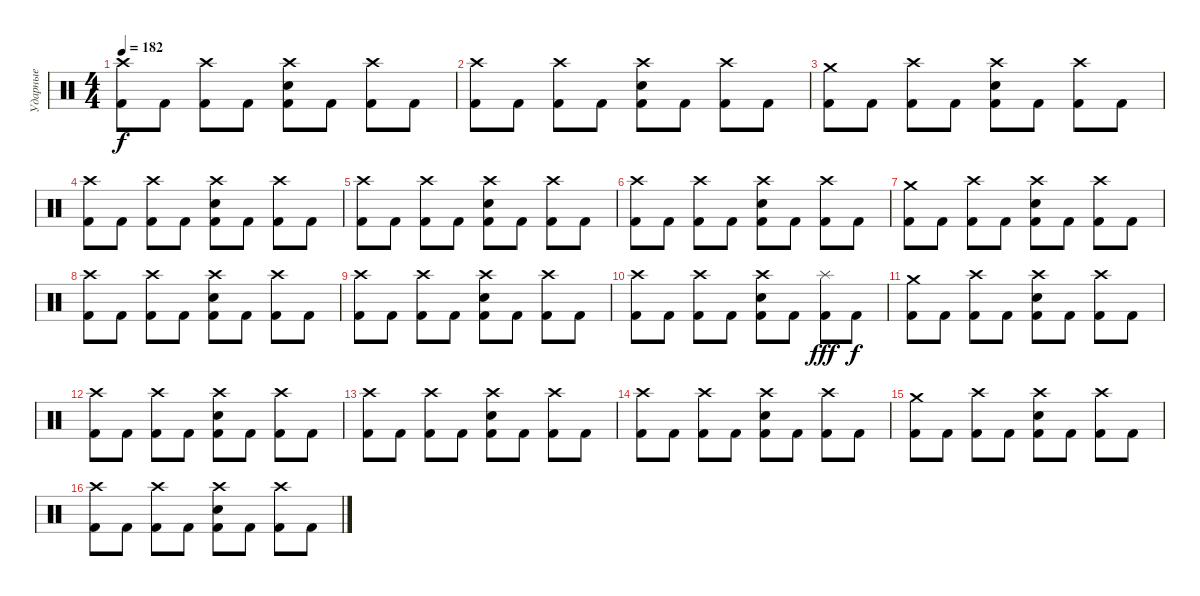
\track ("Ударные" "Ударные") {instrument percussion}
\staff {score}
\articulation defaults
\ts (4 4)
\tempo 182
\clef neutral
\ks c
("Crash high (hit)" "Kick (hit) 2").8{dy f} "Kick (hit) 2".8 ("Crash high (hit)" "Kick (hit) 2").8 "Kick (hit) 2".8 ("Crash high (hit)" "Electric Snare (hit)" "Kick (hit) 2").8 "Kick (hit) 2".8 ("Crash high (hit)" "Kick (hit) 2").8 "Kick (hit) 2".8 |
("Crash high (hit)" "Kick (hit) 2").8 "Kick (hit) 2".8 ("Crash high (hit)" "Kick (hit) 2").8 "Kick (hit) 2".8 ("Crash high (hit)" "Electric Snare (hit)" "Kick (hit) 2").8 "Kick (hit) 2".8 ("Crash high (hit)" "Kick (hit) 2").8 "Kick (hit) 2".8 |
("Crash medium (hit)" "Kick (hit) 2").8 "Kick (hit) 2".8 ("Crash high (hit)" "Kick (hit) 2").8 "Kick (hit) 2".8 ("Crash high (hit)" "Electric Snare (hit)" "Kick (hit) 2").8 "Kick (hit) 2".8 ("Crash high (hit)" "Kick (hit) 2").8 "Kick (hit) 2".8 |
("Crash high (hit)" "Kick (hit) 2").8 "Kick (hit) 2".8 ("Crash high (hit)" "Kick (hit) 2").8 "Kick (hit) 2".8 ("Crash high (hit)" "Electric Snare (hit)" "Kick (hit) 2").8 "Kick (hit) 2".8 ("Crash high (hit)" "Kick (hit) 2").8 "Kick (hit) 2".8 |
("Crash high (hit)" "Kick (hit) 2").8 "Kick (hit) 2".8 ("Crash high (hit)" "Kick (hit) 2").8 "Kick (hit) 2".8 ("Crash high (hit)" "Electric Snare (hit)" "Kick (hit) 2").8 "Kick (hit) 2".8 ("Crash high (hit)" "Kick (hit) 2").8 "Kick (hit) 2".8 |
("Crash high (hit)" "Kick (hit) 2").8 "Kick (hit) 2".8 ("Crash high (hit)" "Kick (hit) 2").8 "Kick (hit) 2".8 ("Crash high (hit)" "Electric Snare (hit)" "Kick (hit) 2").8 "Kick (hit) 2".8 ("Crash high (hit)" "Kick (hit) 2").8 "Kick (hit) 2".8 |
("Crash medium (hit)" "Kick (hit) 2").8 "Kick (hit) 2".8 ("Crash high (hit)" "Kick (hit) 2").8 "Kick (hit) 2".8 ("Crash high (hit)" "Electric Snare (hit)" "Kick (hit) 2").8 "Kick (hit) 2".8 ("Crash high (hit)" "Kick (hit) 2").8 "Kick (hit) 2".8 |
("Crash high (hit)" "Kick (hit) 2").8 "Kick (hit) 2".8 ("Crash high (hit)" "Kick (hit) 2").8 "Kick (hit) 2".8 ("Crash high (hit)" "Electric Snare (hit)" "Kick (hit) 2").8 "Kick (hit) 2".8 ("Crash high (hit)" "Kick (hit) 2").8 "Kick (hit) 2".8 |
("Crash high (hit)" "Kick (hit) 2").8 "Kick (hit) 2".8 ("Crash high (hit)" "Kick (hit) 2").8 "Kick (hit) 2".8 ("Crash high (hit)" "Electric Snare (hit)" "Kick (hit) 2").8 "Kick (hit) 2".8 ("Crash high (hit)" "Kick (hit) 2").8 "Kick (hit) 2".8 |
("Crash high (hit)" "Kick (hit) 2").8 "Kick (hit) 2".8 ("Crash high (hit)" "Kick (hit) 2").8 "Kick (hit) 2".8 ("Crash high (hit)" "Electric Snare (hit)" "Kick (hit) 2").8 "Kick (hit) 2".8 ("Splash (hit)" "Kick (hit) 2").8{dy fff} "Kick (hit) 2".8{dy f} |
("Crash medium (hit)" "Kick (hit) 2").8 "Kick (hit) 2".8 ("Crash high (hit)" "Kick (hit) 2").8 "Kick (hit) 2".8 ("Crash high (hit)" "Electric Snare (hit)" "Kick (hit) 2").8 "Kick (hit) 2".8 ("Crash high (hit)" "Kick (hit) 2").8 "Kick (hit) 2".8 |
("Crash high (hit)" "Kick (hit) 2").8 "Kick (hit) 2".8 ("Crash high (hit)" "Kick (hit) 2").8 "Kick (hit) 2".8 ("Crash high (hit)" "Electric Snare (hit)" "Kick (hit) 2").8 "Kick (hit) 2".8 ("Crash high (hit)" "Kick (hit) 2").8 "Kick (hit) 2".8 |
("Crash high (hit)" "Kick (hit) 2").8 "Kick (hit) 2".8 ("Crash high (hit)" "Kick (hit) 2").8 "Kick (hit) 2".8 ("Crash high (hit)" "Electric Snare (hit)" "Kick (hit) 2").8 "Kick (hit) 2".8 ("Crash high (hit)" "Kick (hit) 2").8 "Kick (hit) 2".8 |
("Crash high (hit)" "Kick (hit) 2").8 "Kick (hit) 2".8 ("Crash high (hit)" "Kick (hit) 2").8 "Kick (hit) 2".8 ("Crash high (hit)" "Electric Snare (hit)" "Kick (hit) 2").8 "Kick (hit) 2".8 ("Crash high (hit)" "Kick (hit) 2").8 "Kick (hit) 2".8 |
("Crash medium (hit)" "Kick (hit) 2").8 "Kick (hit) 2".8 ("Crash high (hit)" "Kick (hit) 2").8 "Kick (hit) 2".8 ("Crash high (hit)" "Electric Snare (hit)" "Kick (hit) 2").8 "Kick (hit) 2".8 ("Crash high (hit)" "Kick (hit) 2").8 "Kick (hit) 2".8 |
("Crash high (hit)" "Kick (hit) 2").8 "Kick (hit) 2".8 ("Crash high (hit)" "Kick (hit) 2").8 "Kick (hit) 2".8 ("Crash high (hit)" "Electric Snare (hit)" "Kick (hit) 2").8 "Kick (hit) 2".8 ("Crash high (hit)" "Kick (hit) 2").8 "Kick (hit) 2".8
